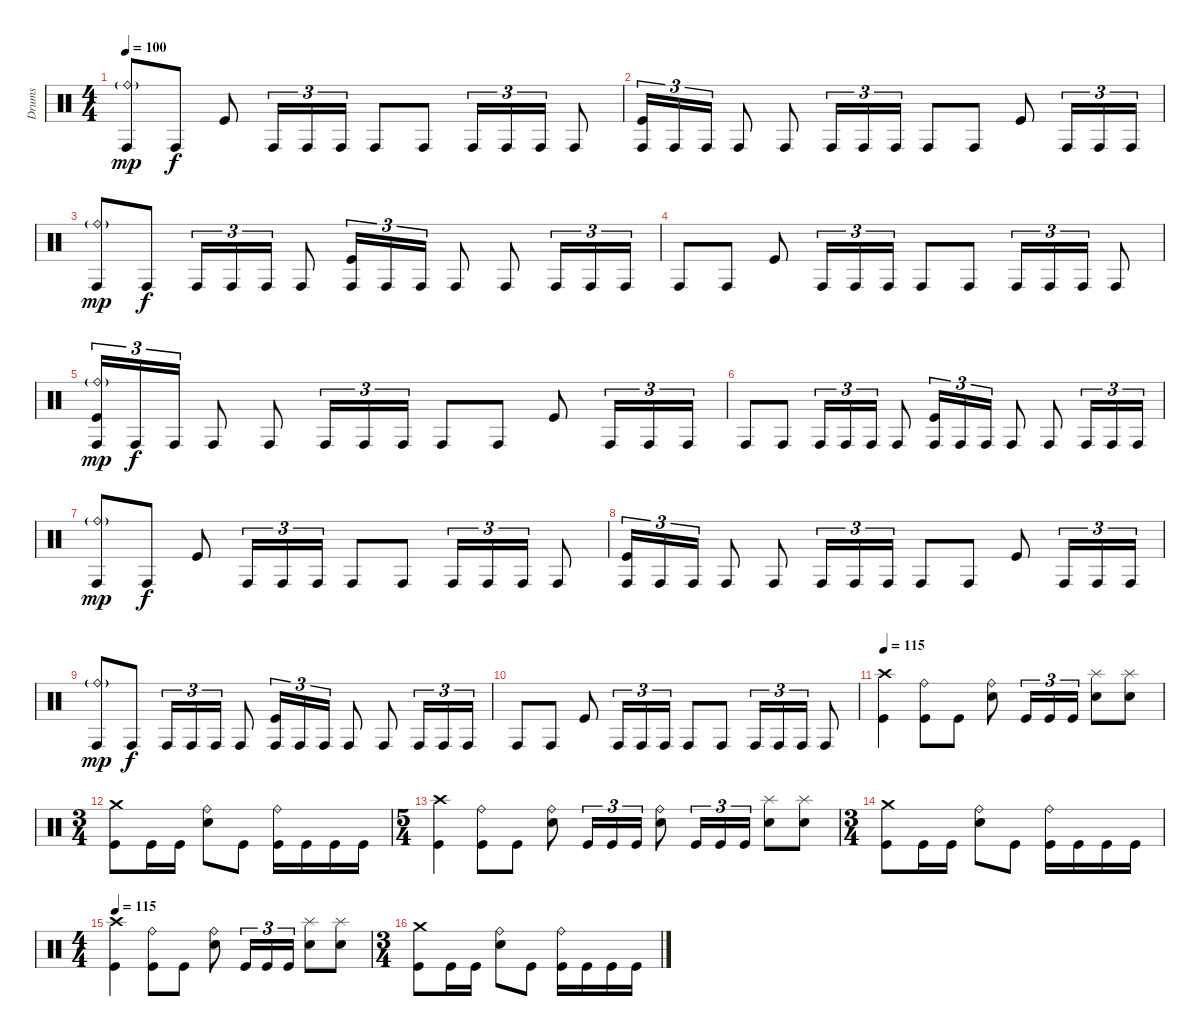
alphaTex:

\track ("Drums" "Drums") {instrument percussion}
\staff {score}
\articulation defaults
\ts (4 4)
\tempo 100
\clef neutral
\ks c
("Conga high (hit)" "Ride (bell)"{g}).8{dy mp} "Conga high (hit)".8{dy f} "Kick (hit)".8 "Conga high (hit)".16{tu (3 2)} "Conga high (hit)".16{tu (3 2)} "Conga high (hit)".16{tu (3 2)} "Conga high (hit)".8 "Conga high (hit)".8 "Conga high (hit)".16{tu (3 2)} "Conga high (hit)".16{tu (3 2)} "Conga high (hit)".16{tu (3 2)} "Conga high (hit)".8 |
("Conga high (hit)" "Kick (hit)").16{tu (3 2)} "Conga high (hit)".16{tu (3 2)} "Conga high (hit)".16{tu (3 2)} "Conga high (hit)".8 "Conga high (hit)".8 "Conga high (hit)".16{tu (3 2)} "Conga high (hit)".16{tu (3 2)} "Conga high (hit)".16{tu (3 2)} "Conga high (hit)".8 "Conga high (hit)".8 "Kick (hit)".8 "Conga high (hit)".16{tu (3 2)} "Conga high (hit)".16{tu (3 2)} "Conga high (hit)".16{tu (3 2)} |
("Conga high (hit)" "Ride (bell)"{g}).8{dy mp} "Conga high (hit)".8{dy f} "Conga high (hit)".16{tu (3 2)} "Conga high (hit)".16{tu (3 2)} "Conga high (hit)".16{tu (3 2)} "Conga high (hit)".8 ("Conga high (hit)" "Kick (hit)").16{tu (3 2)} "Conga high (hit)".16{tu (3 2)} "Conga high (hit)".16{tu (3 2)} "Conga high (hit)".8 "Conga high (hit)".8 "Conga high (hit)".16{tu (3 2)} "Conga high (hit)".16{tu (3 2)} "Conga high (hit)".16{tu (3 2)} |
"Conga high (hit)".8 "Conga high (hit)".8 "Kick (hit)".8 "Conga high (hit)".16{tu (3 2)} "Conga high (hit)".16{tu (3 2)} "Conga high (hit)".16{tu (3 2)} "Conga high (hit)".8 "Conga high (hit)".8 "Conga high (hit)".16{tu (3 2)} "Conga high (hit)".16{tu (3 2)} "Conga high (hit)".16{tu (3 2)} "Conga high (hit)".8 |
("Conga high (hit)" "Ride (bell)"{g} "Kick (hit)").16{tu (3 2) dy mp} "Conga high (hit)".16{tu (3 2) dy f} "Conga high (hit)".16{tu (3 2)} "Conga high (hit)".8 "Conga high (hit)".8 "Conga high (hit)".16{tu (3 2)} "Conga high (hit)".16{tu (3 2)} "Conga high (hit)".16{tu (3 2)} "Conga high (hit)".8 "Conga high (hit)".8 "Kick (hit)".8 "Conga high (hit)".16{tu (3 2)} "Conga high (hit)".16{tu (3 2)} "Conga high (hit)".16{tu (3 2)} |
"Conga high (hit)".8 "Conga high (hit)".8 "Conga high (hit)".16{tu (3 2)} "Conga high (hit)".16{tu (3 2)} "Conga high (hit)".16{tu (3 2)} "Conga high (hit)".8 ("Conga high (hit)" "Kick (hit)").16{tu (3 2)} "Conga high (hit)".16{tu (3 2)} "Conga high (hit)".16{tu (3 2)} "Conga high (hit)".8 "Conga high (hit)".8 "Conga high (hit)".16{tu (3 2)} "Conga high (hit)".16{tu (3 2)} "Conga high (hit)".16{tu (3 2)} |
("Conga high (hit)" "Ride (bell)"{g}).8{dy mp} "Conga high (hit)".8{dy f} "Kick (hit)".8 "Conga high (hit)".16{tu (3 2)} "Conga high (hit)".16{tu (3 2)} "Conga high (hit)".16{tu (3 2)} "Conga high (hit)".8 "Conga high (hit)".8 "Conga high (hit)".16{tu (3 2)} "Conga high (hit)".16{tu (3 2)} "Conga high (hit)".16{tu (3 2)} "Conga high (hit)".8 |
("Conga high (hit)" "Kick (hit)").16{tu (3 2)} "Conga high (hit)".16{tu (3 2)} "Conga high (hit)".16{tu (3 2)} "Conga high (hit)".8 "Conga high (hit)".8 "Conga high (hit)".16{tu (3 2)} "Conga high (hit)".16{tu (3 2)} "Conga high (hit)".16{tu (3 2)} "Conga high (hit)".8 "Conga high (hit)".8 "Kick (hit)".8 "Conga high (hit)".16{tu (3 2)} "Conga high (hit)".16{tu (3 2)} "Conga high (hit)".16{tu (3 2)} |
("Conga high (hit)" "Ride (bell)"{g}).8{dy mp} "Conga high (hit)".8{dy f} "Conga high (hit)".16{tu (3 2)} "Conga high (hit)".16{tu (3 2)} "Conga high (hit)".16{tu (3 2)} "Conga high (hit)".8 ("Conga high (hit)" "Kick (hit)").16{tu (3 2)} "Conga high (hit)".16{tu (3 2)} "Conga high (hit)".16{tu (3 2)} "Conga high (hit)".8 "Conga high (hit)".8 "Conga high (hit)".16{tu (3 2)} "Conga high (hit)".16{tu (3 2)} "Conga high (hit)".16{tu (3 2)} |
"Conga high (hit)".8 "Conga high (hit)".8 "Kick (hit)".8 "Conga high (hit)".16{tu (3 2)} "Conga high (hit)".16{tu (3 2)} "Conga high (hit)".16{tu (3 2)} "Conga high (hit)".8 "Conga high (hit)".8 "Conga high (hit)".16{tu (3 2)} "Conga high (hit)".16{tu (3 2)} "Conga high (hit)".16{tu (3 2)} "Conga high (hit)".8 |
\tempo 115
("Crash high (hit)" "Kick (hit)").4 ("Ride (bell)" "Kick (hit)").8 "Kick (hit)".8 ("Ride (bell)" "Electric Snare (hit)").8 "Kick (hit)".16{tu (3 2)} "Kick (hit)".16{tu (3 2)} "Kick (hit)".16{tu (3 2)} ("Splash (hit)" "Electric Snare (hit)").8 ("Splash (hit)" "Electric Snare (hit)").8 |
\ts (3 4)
("Crash medium (hit)" "Kick (hit)").8 "Kick (hit)".16 "Kick (hit)".16 ("Ride (bell)" "Electric Snare (hit)").8 "Kick (hit)".8 ("Ride (bell)" "Kick (hit)").16 "Kick (hit)".16 "Kick (hit)".16 "Kick (hit)".16 |
\ts (5 4)
("Crash high (hit)" "Kick (hit)").4 ("Ride (bell)" "Kick (hit)").8 "Kick (hit)".8 ("Ride (bell)" "Electric Snare (hit)").8 "Kick (hit)".16{tu (3 2)} "Kick (hit)".16{tu (3 2)} "Kick (hit)".16{tu (3 2)} ("Ride (bell)" "Electric Snare (hit)").8 "Kick (hit)".16{tu (3 2)} "Kick (hit)".16{tu (3 2)} "Kick (hit)".16{tu (3 2)} ("Splash (hit)" "Electric Snare (hit)").8 ("Splash (hit)" "Electric Snare (hit)").8 |
\ts (3 4)
("Crash medium (hit)" "Kick (hit)").8 "Kick (hit)".16 "Kick (hit)".16 ("Ride (bell)" "Electric Snare (hit)").8 "Kick (hit)".8 ("Ride (bell)" "Kick (hit)").16 "Kick (hit)".16 "Kick (hit)".16 "Kick (hit)".16 |
\ts (4 4)
\tempo 115
("Crash high (hit)" "Kick (hit)").4 ("Ride (bell)" "Kick (hit)").8 "Kick (hit)".8 ("Ride (bell)" "Electric Snare (hit)").8 "Kick (hit)".16{tu (3 2)} "Kick (hit)".16{tu (3 2)} "Kick (hit)".16{tu (3 2)} ("Splash (hit)" "Electric Snare (hit)").8 ("Splash (hit)" "Electric Snare (hit)").8 |
\ts (3 4)
("Crash medium (hit)" "Kick (hit)").8 "Kick (hit)".16 "Kick (hit)".16 ("Ride (bell)" "Electric Snare (hit)").8 "Kick (hit)".8 ("Ride (bell)" "Kick (hit)").16 "Kick (hit)".16 "Kick (hit)".16 "Kick (hit)".16
